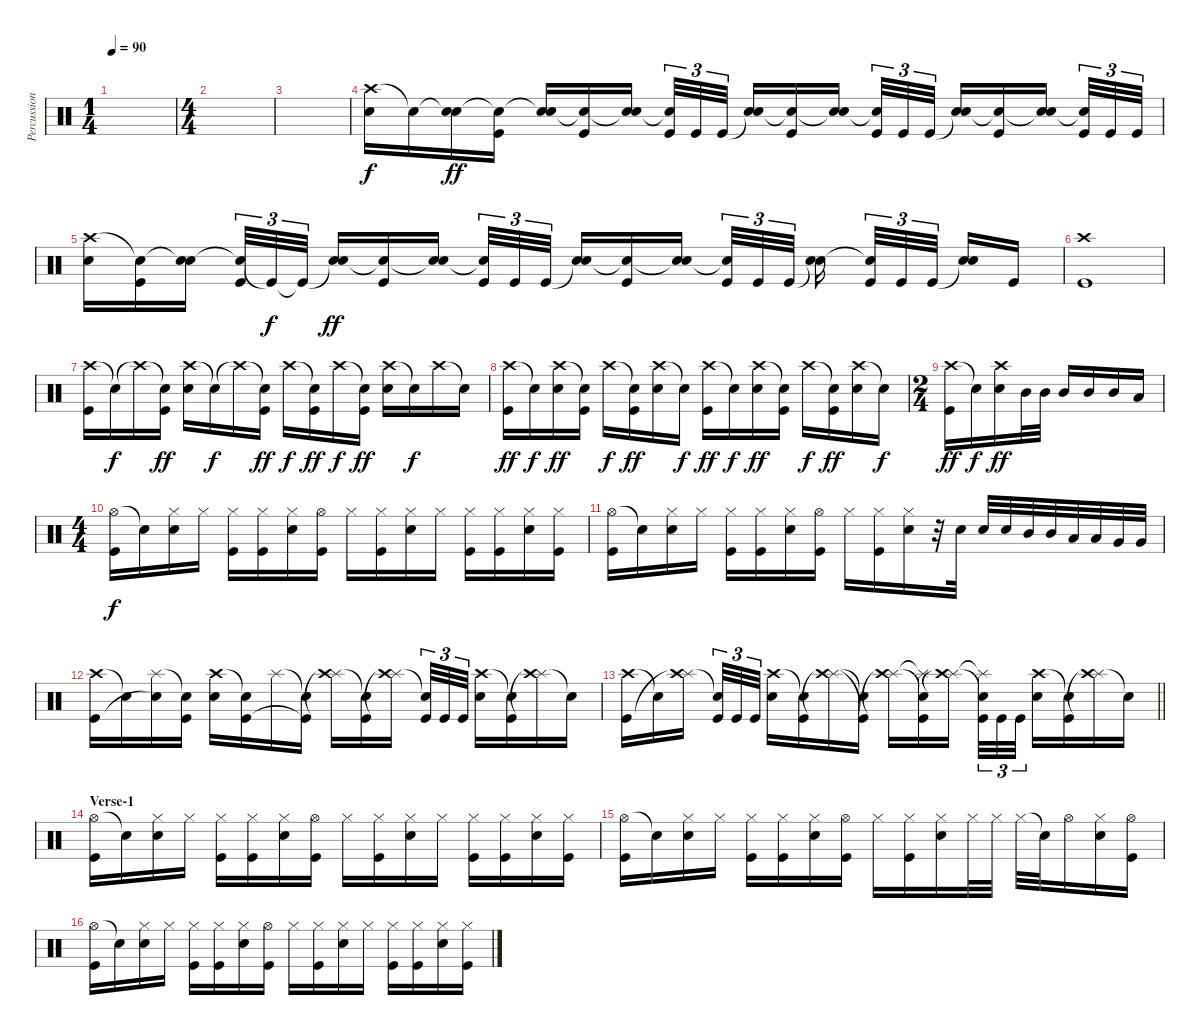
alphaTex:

\track ("Percussion" "Percussion") {instrument percussion}
\staff {score}
\articulation defaults
\ts (1 4)
\tempo 90
\clef neutral
\ks c
|
\ts (4 4)
|
|
("Crash high (hit)" "Electric Snare (hit)").16 "Snare (hit)"{t}.16{dy f} ("Snare (hit)"{t} "Electric Snare (hit)").16{dy ff} ("Snare (hit)"{t} "Kick (hit)").16 ("Snare (hit)"{t} "Electric Snare (hit)").16 ("Snare (hit)"{t} "Kick (hit)").16 ("Snare (hit)"{t} "Electric Snare (hit)").16 ("Snare (hit)"{t} "Kick (hit)").32{tu (3 2)} "Kick (hit)".32{tu (3 2)} "Kick (hit)".32{tu (3 2)} ("Snare (hit)"{t} "Electric Snare (hit)").16 ("Snare (hit)"{t} "Kick (hit)").16 ("Snare (hit)"{t} "Electric Snare (hit)").16 ("Snare (hit)"{t} "Kick (hit)").32{tu (3 2)} "Kick (hit)".32{tu (3 2)} "Kick (hit)".32{tu (3 2)} ("Snare (hit)"{t} "Electric Snare (hit)").16 ("Snare (hit)"{t} "Kick (hit)").16 ("Snare (hit)"{t} "Electric Snare (hit)").16 ("Snare (hit)"{t} "Kick (hit)").32{tu (3 2)} "Kick (hit)".32{tu (3 2)} "Kick (hit)".32{tu (3 2)} |
("Crash high (hit)" "Electric Snare (hit)").16 ("Snare (hit)"{t} "Kick (hit)").16 ("Snare (hit)"{t} "Electric Snare (hit)").16 ("Snare (hit)"{t} "Kick (hit)").32{tu (3 2)} "Kick (hit)"{t}.32{tu (3 2) dy f} "Kick (hit)"{t}.32{tu (3 2)} ("Snare (hit)"{t} "Electric Snare (hit)").16{dy ff} ("Snare (hit)"{t} "Kick (hit)").16 ("Snare (hit)"{t} "Electric Snare (hit)").16 ("Snare (hit)"{t} "Kick (hit)").32{tu (3 2)} "Kick (hit)".32{tu (3 2)} "Kick (hit)".32{tu (3 2)} ("Snare (hit)"{t} "Electric Snare (hit)").16 ("Snare (hit)"{t} "Kick (hit)").16 ("Snare (hit)"{t} "Electric Snare (hit)").16 ("Snare (hit)"{t} "Kick (hit)").32{tu (3 2)} "Kick (hit)".32{tu (3 2)} "Kick (hit)".32{tu (3 2)} ("Snare (hit)"{t} "Electric Snare (hit)").16 ("Snare (hit)"{t} "Kick (hit)").32{tu (3 2)} "Kick (hit)".32{tu (3 2)} "Kick (hit)".32{tu (3 2)} ("Snare (hit)"{t} "Electric Snare (hit)").16 "Kick (hit)".16 |
("Crash high (hit)" "Kick (hit)").1 |
("Crash high (hit)" "Kick (hit)").16 "Snare (hit)"{t}.16{dy f} "Crash high (hit)"{t}.16 ("Snare (hit)"{t} "Kick (hit)").16{dy ff} ("Crash high (hit)" "Electric Snare (hit)").16 "Snare (hit)"{t}.16{dy f} "Crash high (hit)"{t}.16 ("Snare (hit)"{t} "Kick (hit)").16{dy ff} "Crash high (hit)".16{dy f} ("Snare (hit)"{t} "Kick (hit)").16{dy ff} "Crash high (hit)".16{dy f} ("Snare (hit)"{t} "Kick (hit)").16{dy ff} ("Crash high (hit)" "Electric Snare (hit)").16 "Snare (hit)"{t}.16{dy f} "Crash high (hit)".16 "Snare (hit)"{t}.16 |
("Crash high (hit)" "Kick (hit)").16{dy ff} "Snare (hit)"{t}.16{dy f} ("Crash high (hit)" "Electric Snare (hit)").16{dy ff} ("Snare (hit)"{t} "Kick (hit)").16 "Crash high (hit)".16{dy f} ("Snare (hit)"{t} "Kick (hit)").16{dy ff} ("Crash high (hit)" "Electric Snare (hit)").16 "Snare (hit)"{t}.16{dy f} ("Crash high (hit)" "Kick (hit)").16{dy ff} "Snare (hit)"{t}.16{dy f} ("Crash high (hit)" "Electric Snare (hit)").16{dy ff} ("Snare (hit)"{t} "Kick (hit)").16 "Crash high (hit)".16{dy f} ("Snare (hit)"{t} "Kick (hit)").16{dy ff} ("Crash high (hit)" "Electric Snare (hit)").16 "Snare (hit)"{t}.16{dy f} |
\ts (2 4)
("Crash high (hit)" "Kick (hit)").16{dy ff} "Snare (hit)"{t}.16{dy f} ("Crash high (hit)" "Electric Snare (hit)").16{dy ff} "Mid Tom (hit)".32 "Mid Tom (hit)".32 "Mid Tom (hit)".16 "Mid Tom (hit)".16 "Mid Tom (hit)".16 "Low Tom (hit)".16 |
\ts (4 4)
("Hi-Hat (open)" "Kick (hit)").16{dy f} "Snare (hit)"{t}.16 ("Hi-Hat (closed)" "Electric Snare (hit)").16 "Hi-Hat (closed)".16 ("Hi-Hat (closed)" "Kick (hit)").16 ("Hi-Hat (closed)" "Kick (hit)").16 ("Hi-Hat (closed)" "Electric Snare (hit)").16 ("Hi-Hat (open)" "Kick (hit)").16 "Hi-Hat (closed)".16 ("Hi-Hat (closed)" "Kick (hit)").16 ("Hi-Hat (closed)" "Electric Snare (hit)").16 "Hi-Hat (closed)".16 ("Hi-Hat (closed)" "Kick (hit)").16 ("Hi-Hat (closed)" "Kick (hit)").16 ("Hi-Hat (closed)" "Electric Snare (hit)").16 ("Hi-Hat (closed)" "Kick (hit)").16 |
("Hi-Hat (open)" "Kick (hit)").16 "Snare (hit)"{t}.16 ("Hi-Hat (closed)" "Electric Snare (hit)").16 "Hi-Hat (closed)".16 ("Hi-Hat (closed)" "Kick (hit)").16 ("Hi-Hat (closed)" "Kick (hit)").16 ("Hi-Hat (closed)" "Electric Snare (hit)").16 ("Hi-Hat (open)" "Kick (hit)").16 "Hi-Hat (closed)".16 ("Hi-Hat (closed)" "Kick (hit)").16 ("Hi-Hat (closed)" "Electric Snare (hit)").16 r.32 "Electric Snare (hit)".32 "Electric Snare (hit)".32 "Electric Snare (hit)".32 "Mid Tom (hit)".32 "Mid Tom (hit)".32 "Low Tom (hit)".32 "Low Tom (hit)".32 "Very Low Tom (hit)".32 "Very Low Tom (hit)".32 |
("Crash high (hit)" "Kick (hit)").16 "Snare (hit)"{t}.16 ("Splash (hit)" "Snare (hit)"{t}).16 ("Snare (hit)"{t} "Kick (hit)").16 ("Crash high (hit)" "Electric Snare (hit)").16 ("Snare (hit)"{t} "Kick (hit)").16 "Splash (hit)".16 ("Snare (hit)"{t} "Kick (hit)"{t}).16 ("Splash (hit)" "Crash high (hit)"{t}).16 ("Snare (hit)"{t} "Kick (hit)").16 ("Splash (hit)" "Crash high (hit)"{t}).16 ("Snare (hit)"{t} "Kick (hit)").32{tu (3 2)} "Kick (hit)".32{tu (3 2)} "Kick (hit)".32{tu (3 2)} ("Crash high (hit)" "Electric Snare (hit)").16 ("Snare (hit)"{t} "Kick (hit)").16 ("Splash (hit)" "Crash high (hit)"{t}).16 "Snare (hit)"{t}.16 |
\barLineRight lightlight
("Crash high (hit)" "Kick (hit)").16 "Snare (hit)"{t}.16 ("Splash (hit)" "Crash high (hit)"{t}).16 ("Snare (hit)"{t} "Kick (hit)").32{tu (3 2)} "Kick (hit)".32{tu (3 2)} "Kick (hit)".32{tu (3 2)} ("Crash high (hit)" "Electric Snare (hit)").16 ("Snare (hit)"{t} "Kick (hit)").16 ("Splash (hit)" "Crash high (hit)"{t}).16 ("Snare (hit)"{t} "Kick (hit)"{t}).16 ("Splash (hit)" "Crash high (hit)"{t}).16 ("Splash (hit)"{t} "Snare (hit)"{t} "Kick (hit)").16 ("Splash (hit)" "Crash high (hit)"{t}).16 ("Splash (hit)"{t} "Snare (hit)"{t} "Kick (hit)").32{tu (3 2)} "Kick (hit)".32{tu (3 2)} "Kick (hit)".32{tu (3 2)} ("Crash high (hit)" "Electric Snare (hit)").16 ("Snare (hit)"{t} "Kick (hit)").16 ("Splash (hit)" "Crash high (hit)"{t}).16 "Snare (hit)"{t}.16 |
\section ("" "Verse-1")
("Hi-Hat (open)" "Kick (hit)").16 "Snare (hit)"{t}.16 ("Hi-Hat (closed)" "Electric Snare (hit)").16 "Hi-Hat (closed)".16 ("Hi-Hat (closed)" "Kick (hit)").16 ("Hi-Hat (closed)" "Kick (hit)").16 ("Hi-Hat (closed)" "Electric Snare (hit)").16 ("Hi-Hat (open)" "Kick (hit)").16 "Hi-Hat (closed)".16 ("Hi-Hat (closed)" "Kick (hit)").16 ("Hi-Hat (closed)" "Electric Snare (hit)").16 "Hi-Hat (closed)".16 ("Hi-Hat (closed)" "Kick (hit)").16 ("Hi-Hat (closed)" "Kick (hit)").16 ("Hi-Hat (closed)" "Electric Snare (hit)").16 ("Hi-Hat (closed)" "Kick (hit)").16 |
("Hi-Hat (open)" "Kick (hit)").16 "Snare (hit)"{t}.16 ("Hi-Hat (closed)" "Electric Snare (hit)").16 "Hi-Hat (closed)".16 ("Hi-Hat (closed)" "Kick (hit)").16 ("Hi-Hat (closed)" "Kick (hit)").16 ("Hi-Hat (closed)" "Electric Snare (hit)").16 ("Hi-Hat (open)" "Kick (hit)").16 "Hi-Hat (closed)".16 ("Hi-Hat (closed)" "Kick (hit)").16 ("Hi-Hat (closed)" "Electric Snare (hit)").16 "Hi-Hat (closed)".32 "Hi-Hat (closed)".32 "Hi-Hat (closed)".32 "Snare (hit)"{t}.32 "Hi-Hat (open)".16 ("Hi-Hat (closed)" "Electric Snare (hit)").16 ("Hi-Hat (open)" "Kick (hit)").16 |
("Hi-Hat (open)" "Kick (hit)").16 "Snare (hit)"{t}.16 ("Hi-Hat (closed)" "Electric Snare (hit)").16 "Hi-Hat (closed)".16 ("Hi-Hat (closed)" "Kick (hit)").16 ("Hi-Hat (closed)" "Kick (hit)").16 ("Hi-Hat (closed)" "Electric Snare (hit)").16 ("Hi-Hat (open)" "Kick (hit)").16 "Hi-Hat (closed)".16 ("Hi-Hat (closed)" "Kick (hit)").16 ("Hi-Hat (closed)" "Electric Snare (hit)").16 "Hi-Hat (closed)".16 ("Hi-Hat (closed)" "Kick (hit)").16 ("Hi-Hat (closed)" "Kick (hit)").16 ("Hi-Hat (closed)" "Electric Snare (hit)").16 ("Hi-Hat (closed)" "Kick (hit)").16
